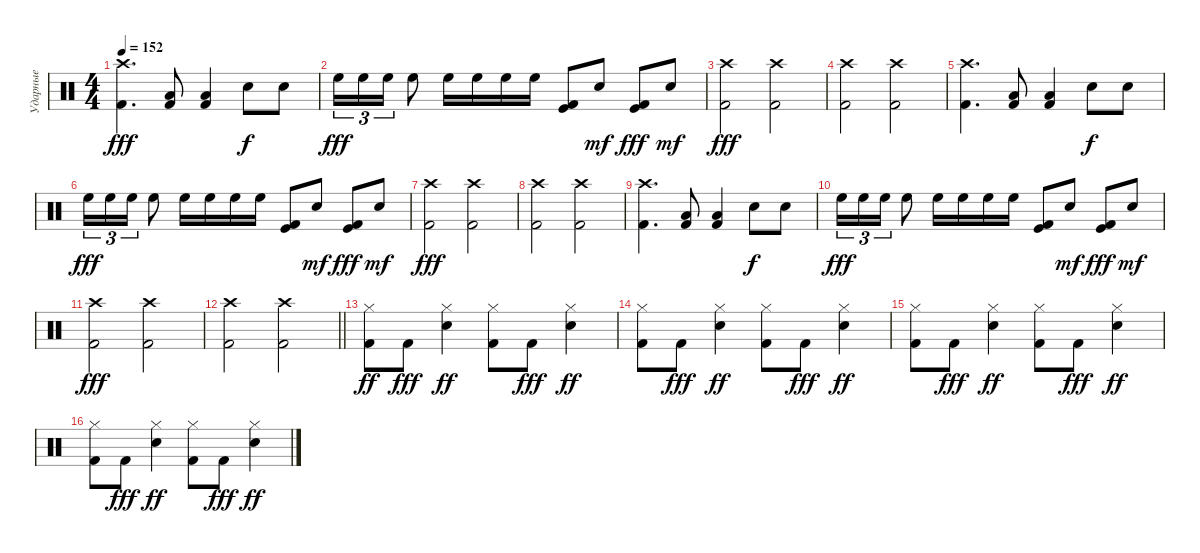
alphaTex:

\track ("Ударные" "Ударные") {instrument percussion}
\staff
\articulation defaults
\ts (4 4)
\tempo 152
\clef neutral
\ks c
("Kick (hit) 2" "Crash high (hit)").4{d dy fff} ("Kick (hit) 2" "Low Tom (hit)").8 ("Kick (hit) 2" "Low Tom (hit)").4 "Snare (hit) 2".8{dy f} "Snare (hit) 2".8 |
"High Floor Tom (hit)".16{tu (3 2) dy fff} "High Floor Tom (hit)".16{tu (3 2)} "High Floor Tom (hit)".16{tu (3 2)} "High Floor Tom (hit)".8 "High Floor Tom (hit)".16 "High Floor Tom (hit)".16 "High Floor Tom (hit)".16 "High Floor Tom (hit)".16 ("Kick (hit) 2" "Kick (hit)").8 "Electric Snare (hit)".8{dy mf} ("Kick (hit) 2" "Kick (hit)").8{dy fff} "Electric Snare (hit)".8{dy mf} |
("Kick (hit) 2" "Crash high (hit)").2{dy fff} ("Kick (hit) 2" "Crash high (hit)").2 |
("Kick (hit) 2" "Crash high (hit)").2 ("Kick (hit) 2" "Crash high (hit)").2 |
("Kick (hit) 2" "Crash high (hit)").4{d} ("Kick (hit) 2" "Low Tom (hit)").8 ("Kick (hit) 2" "Low Tom (hit)").4 "Snare (hit) 2".8{dy f} "Snare (hit) 2".8 |
"High Floor Tom (hit)".16{tu (3 2) dy fff} "High Floor Tom (hit)".16{tu (3 2)} "High Floor Tom (hit)".16{tu (3 2)} "High Floor Tom (hit)".8 "High Floor Tom (hit)".16 "High Floor Tom (hit)".16 "High Floor Tom (hit)".16 "High Floor Tom (hit)".16 ("Kick (hit) 2" "Kick (hit)").8 "Electric Snare (hit)".8{dy mf} ("Kick (hit) 2" "Kick (hit)").8{dy fff} "Electric Snare (hit)".8{dy mf} |
("Kick (hit) 2" "Crash high (hit)").2{dy fff} ("Kick (hit) 2" "Crash high (hit)").2 |
("Kick (hit) 2" "Crash high (hit)").2 ("Kick (hit) 2" "Crash high (hit)").2 |
("Kick (hit) 2" "Crash high (hit)").4{d} ("Kick (hit) 2" "Low Tom (hit)").8 ("Kick (hit) 2" "Low Tom (hit)").4 "Snare (hit) 2".8{dy f} "Snare (hit) 2".8 |
"High Floor Tom (hit)".16{tu (3 2) dy fff} "High Floor Tom (hit)".16{tu (3 2)} "High Floor Tom (hit)".16{tu (3 2)} "High Floor Tom (hit)".8 "High Floor Tom (hit)".16 "High Floor Tom (hit)".16 "High Floor Tom (hit)".16 "High Floor Tom (hit)".16 ("Kick (hit) 2" "Kick (hit)").8 "Electric Snare (hit)".8{dy mf} ("Kick (hit) 2" "Kick (hit)").8{dy fff} "Electric Snare (hit)".8{dy mf} |
("Kick (hit) 2" "Crash high (hit)").2{dy fff} ("Kick (hit) 2" "Crash high (hit)").2 |
\barLineRight lightlight
("Kick (hit) 2" "Crash high (hit)").2 ("Kick (hit) 2" "Crash high (hit)").2 |
("Kick (hit) 2" "Hi-Hat (closed)").8{dy ff} "Kick (hit) 2".8{dy fff} ("Snare (hit) 2" "Hi-Hat (closed)").4{dy ff} ("Kick (hit) 2" "Hi-Hat (closed)").8 "Kick (hit) 2".8{dy fff} ("Snare (hit) 2" "Hi-Hat (closed)").4{dy ff} |
("Kick (hit) 2" "Hi-Hat (closed)").8 "Kick (hit) 2".8{dy fff} ("Snare (hit) 2" "Hi-Hat (closed)").4{dy ff} ("Kick (hit) 2" "Hi-Hat (closed)").8 "Kick (hit) 2".8{dy fff} ("Snare (hit) 2" "Hi-Hat (closed)").4{dy ff} |
("Kick (hit) 2" "Hi-Hat (closed)").8 "Kick (hit) 2".8{dy fff} ("Snare (hit) 2" "Hi-Hat (closed)").4{dy ff} ("Kick (hit) 2" "Hi-Hat (closed)").8 "Kick (hit) 2".8{dy fff} ("Snare (hit) 2" "Hi-Hat (closed)").4{dy ff} |
("Kick (hit) 2" "Hi-Hat (closed)").8 "Kick (hit) 2".8{dy fff} ("Snare (hit) 2" "Hi-Hat (closed)").4{dy ff} ("Kick (hit) 2" "Hi-Hat (closed)").8 "Kick (hit) 2".8{dy fff} ("Snare (hit) 2" "Hi-Hat (closed)").4{dy ff}
